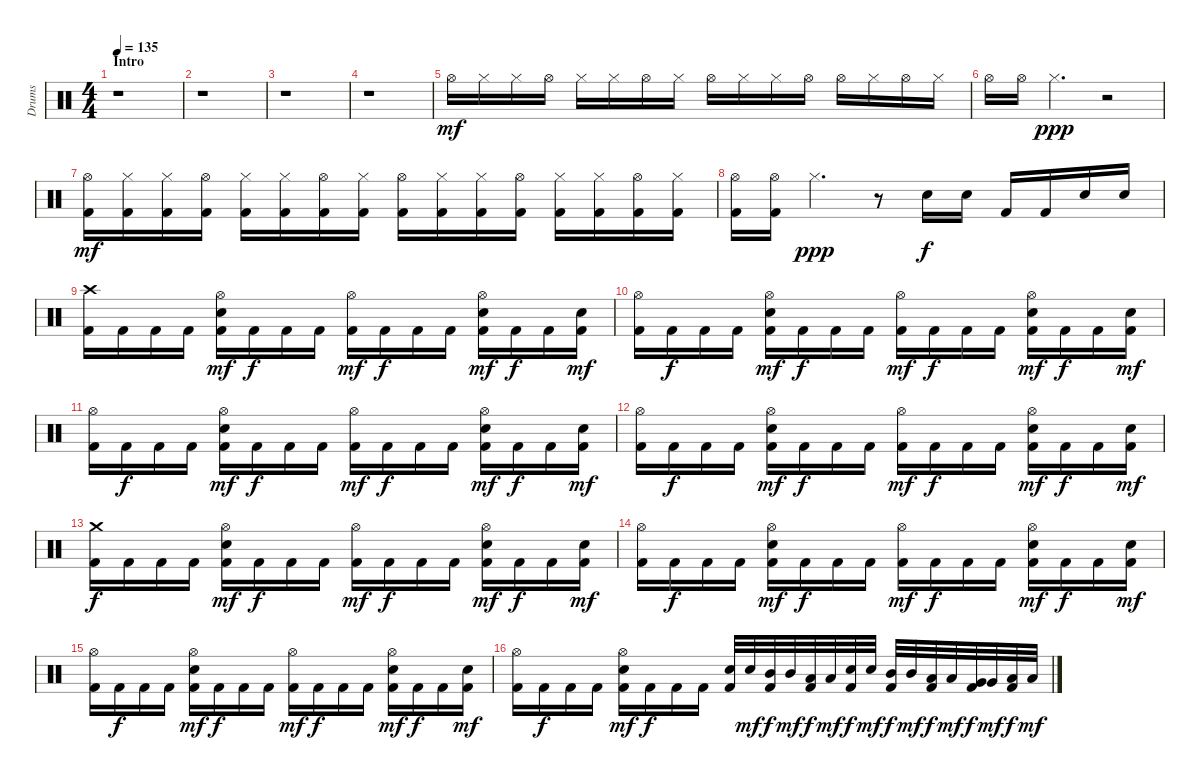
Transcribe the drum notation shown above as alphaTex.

\track ("Drums" "Drums") {instrument percussion}
\staff {score}
\articulation defaults
\ts (4 4)
\section ("" "Intro")
\tempo 135
\clef neutral
\ks c
r.1{dy mf} |
r.1 |
r.1 |
r.1 |
"Hi-Hat (open)".16 "Hi-Hat (closed)".16 "Hi-Hat (closed)".16 "Hi-Hat (open)".16 "Hi-Hat (closed)".16 "Hi-Hat (closed)".16 "Hi-Hat (open)".16 "Hi-Hat (closed)".16 "Hi-Hat (open)".16 "Hi-Hat (closed)".16 "Hi-Hat (closed)".16 "Hi-Hat (open)".16 "Hi-Hat (open)".16 "Hi-Hat (closed)".16 "Hi-Hat (open)".16 "Hi-Hat (closed)".16 |
"Hi-Hat (open)".16 "Hi-Hat (open)".16 "Hi-Hat (closed)".4{d dy ppp} r.2 |
("Kick (hit) 2" "Hi-Hat (open)").16{dy mf} ("Kick (hit) 2" "Hi-Hat (closed)").16 ("Kick (hit) 2" "Hi-Hat (closed)").16 ("Kick (hit) 2" "Hi-Hat (open)").16 ("Kick (hit) 2" "Hi-Hat (closed)").16 ("Kick (hit) 2" "Hi-Hat (closed)").16 ("Kick (hit) 2" "Hi-Hat (open)").16 ("Kick (hit) 2" "Hi-Hat (closed)").16 ("Kick (hit) 2" "Hi-Hat (open)").16 ("Kick (hit) 2" "Hi-Hat (closed)").16 ("Kick (hit) 2" "Hi-Hat (closed)").16 ("Kick (hit) 2" "Hi-Hat (open)").16 ("Kick (hit) 2" "Hi-Hat (closed)").16 ("Kick (hit) 2" "Hi-Hat (closed)").16 ("Kick (hit) 2" "Hi-Hat (open)").16 ("Kick (hit) 2" "Hi-Hat (closed)").16 |
("Kick (hit) 2" "Hi-Hat (open)").16 ("Kick (hit) 2" "Hi-Hat (open)").16 "Hi-Hat (closed)".4{d dy ppp} r.8 "Electric Snare (hit)".16{dy f} "Electric Snare (hit)".16 "Kick (hit) 2".16 "Kick (hit) 2".16 "Electric Snare (hit)".16 "Electric Snare (hit)".16 |
("Kick (hit) 2" "Crash high (hit)").16 "Kick (hit) 2".16 "Kick (hit) 2".16 "Kick (hit) 2".16 ("Kick (hit) 2" "Hi-Hat (open)" "Electric Snare (hit)").16{dy mf} "Kick (hit) 2".16{dy f} "Kick (hit) 2".16 "Kick (hit) 2".16 ("Kick (hit) 2" "Hi-Hat (open)").16{dy mf} "Kick (hit) 2".16{dy f} "Kick (hit) 2".16 "Kick (hit) 2".16 ("Kick (hit) 2" "Hi-Hat (open)" "Electric Snare (hit)").16{dy mf} "Kick (hit) 2".16{dy f} "Kick (hit) 2".16 ("Kick (hit) 2" "Electric Snare (hit)").16{dy mf} |
("Kick (hit) 2" "Hi-Hat (open)").16 "Kick (hit) 2".16{dy f} "Kick (hit) 2".16 "Kick (hit) 2".16 ("Kick (hit) 2" "Hi-Hat (open)" "Electric Snare (hit)").16{dy mf} "Kick (hit) 2".16{dy f} "Kick (hit) 2".16 "Kick (hit) 2".16 ("Kick (hit) 2" "Hi-Hat (open)").16{dy mf} "Kick (hit) 2".16{dy f} "Kick (hit) 2".16 "Kick (hit) 2".16 ("Kick (hit) 2" "Hi-Hat (open)" "Electric Snare (hit)").16{dy mf} "Kick (hit) 2".16{dy f} "Kick (hit) 2".16 ("Kick (hit) 2" "Electric Snare (hit)").16{dy mf} |
("Kick (hit) 2" "Hi-Hat (open)").16 "Kick (hit) 2".16{dy f} "Kick (hit) 2".16 "Kick (hit) 2".16 ("Kick (hit) 2" "Hi-Hat (open)" "Electric Snare (hit)").16{dy mf} "Kick (hit) 2".16{dy f} "Kick (hit) 2".16 "Kick (hit) 2".16 ("Kick (hit) 2" "Hi-Hat (open)").16{dy mf} "Kick (hit) 2".16{dy f} "Kick (hit) 2".16 "Kick (hit) 2".16 ("Kick (hit) 2" "Hi-Hat (open)" "Electric Snare (hit)").16{dy mf} "Kick (hit) 2".16{dy f} "Kick (hit) 2".16 ("Kick (hit) 2" "Electric Snare (hit)").16{dy mf} |
("Kick (hit) 2" "Hi-Hat (open)").16 "Kick (hit) 2".16{dy f} "Kick (hit) 2".16 "Kick (hit) 2".16 ("Kick (hit) 2" "Hi-Hat (open)" "Electric Snare (hit)").16{dy mf} "Kick (hit) 2".16{dy f} "Kick (hit) 2".16 "Kick (hit) 2".16 ("Kick (hit) 2" "Hi-Hat (open)").16{dy mf} "Kick (hit) 2".16{dy f} "Kick (hit) 2".16 "Kick (hit) 2".16 ("Kick (hit) 2" "Hi-Hat (open)" "Electric Snare (hit)").16{dy mf} "Kick (hit) 2".16{dy f} "Kick (hit) 2".16 ("Kick (hit) 2" "Electric Snare (hit)").16{dy mf} |
("Kick (hit) 2" "Crash medium (hit)").16{dy f} "Kick (hit) 2".16 "Kick (hit) 2".16 "Kick (hit) 2".16 ("Kick (hit) 2" "Hi-Hat (open)" "Electric Snare (hit)").16{dy mf} "Kick (hit) 2".16{dy f} "Kick (hit) 2".16 "Kick (hit) 2".16 ("Kick (hit) 2" "Hi-Hat (open)").16{dy mf} "Kick (hit) 2".16{dy f} "Kick (hit) 2".16 "Kick (hit) 2".16 ("Kick (hit) 2" "Hi-Hat (open)" "Electric Snare (hit)").16{dy mf} "Kick (hit) 2".16{dy f} "Kick (hit) 2".16 ("Kick (hit) 2" "Electric Snare (hit)").16{dy mf} |
("Kick (hit) 2" "Hi-Hat (open)").16 "Kick (hit) 2".16{dy f} "Kick (hit) 2".16 "Kick (hit) 2".16 ("Kick (hit) 2" "Hi-Hat (open)" "Electric Snare (hit)").16{dy mf} "Kick (hit) 2".16{dy f} "Kick (hit) 2".16 "Kick (hit) 2".16 ("Kick (hit) 2" "Hi-Hat (open)").16{dy mf} "Kick (hit) 2".16{dy f} "Kick (hit) 2".16 "Kick (hit) 2".16 ("Kick (hit) 2" "Hi-Hat (open)" "Electric Snare (hit)").16{dy mf} "Kick (hit) 2".16{dy f} "Kick (hit) 2".16 ("Kick (hit) 2" "Electric Snare (hit)").16{dy mf} |
("Kick (hit) 2" "Hi-Hat (open)").16 "Kick (hit) 2".16{dy f} "Kick (hit) 2".16 "Kick (hit) 2".16 ("Kick (hit) 2" "Hi-Hat (open)" "Electric Snare (hit)").16{dy mf} "Kick (hit) 2".16{dy f} "Kick (hit) 2".16 "Kick (hit) 2".16 ("Kick (hit) 2" "Hi-Hat (open)").16{dy mf} "Kick (hit) 2".16{dy f} "Kick (hit) 2".16 "Kick (hit) 2".16 ("Kick (hit) 2" "Hi-Hat (open)" "Electric Snare (hit)").16{dy mf} "Kick (hit) 2".16{dy f} "Kick (hit) 2".16 ("Kick (hit) 2" "Electric Snare (hit)").16{dy mf} |
("Kick (hit) 2" "Hi-Hat (open)").16 "Kick (hit) 2".16{dy f} "Kick (hit) 2".16 "Kick (hit) 2".16 ("Kick (hit) 2" "Hi-Hat (open)" "Electric Snare (hit)").16{dy mf} "Kick (hit) 2".16{dy f} "Kick (hit) 2".16 "Kick (hit) 2".16 ("Kick (hit) 2" "Electric Snare (hit)").32 "Electric Snare (hit)".32{dy mf} ("Kick (hit) 2" "Mid Tom (hit)").32{dy f} "Mid Tom (hit)".32{dy mf} ("Kick (hit) 2" "Low Tom (hit)").32{dy f} "Low Tom (hit)".32{dy mf} ("Kick (hit) 2" "Electric Snare (hit)").32{dy f} "Electric Snare (hit)".32{dy mf} ("Kick (hit) 2" "Mid Tom (hit)").32{dy f} "Mid Tom (hit)".32{dy mf} ("Kick (hit) 2" "Low Tom (hit)").32{dy f} "Low Tom (hit)".32{dy mf} ("Kick (hit) 2" "Very Low Tom (hit)").32{dy f} "Very Low Tom (hit)".32{dy mf} ("Kick (hit) 2" "Low Floor Tom (hit)").32{dy f} "Low Floor Tom (hit)".32{dy mf}
